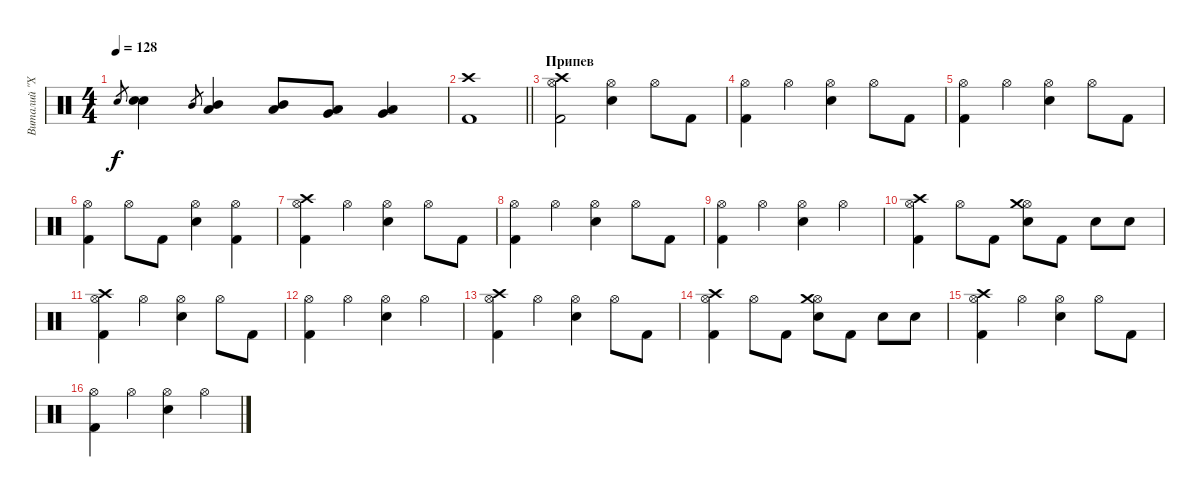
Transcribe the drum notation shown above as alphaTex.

\track ("Виталий \"Хамер\" Лядов" "Виталий \"Х") {instrument percussion}
\staff {score}
\articulation defaults
\ts (4 4)
\tempo 128
\clef neutral
\ks c "Electric Snare (hit)".8{gr dy f}
("Electric Snare (hit)" "Electric Snare (hit)").4 "Mid Tom (hit)".8{gr} ("Mid Tom (hit)" "Low Tom (hit)").4 ("Low Tom (hit)" "Mid Tom (hit)").8 ("Very Low Tom (hit)" "Low Tom (hit)").8 ("Low Floor Tom (hit)" "Very Low Tom (hit)").4 |
\barLineRight lightlight
("Kick (hit) 2" "Crash high (hit)").1 |
\section ("" "Припев")
("Kick (hit) 2" "Hi-Hat (open)" "Crash high (hit)").2 ("Electric Snare (hit)" "Hi-Hat (open)").4 "Hi-Hat (open)".8 "Kick (hit) 2".8 |
("Kick (hit) 2" "Hi-Hat (open)").4 "Hi-Hat (open)".4 ("Electric Snare (hit)" "Hi-Hat (open)").4 "Hi-Hat (open)".8 "Kick (hit) 2".8 |
("Kick (hit) 2" "Hi-Hat (open)").4 "Hi-Hat (open)".4 ("Electric Snare (hit)" "Hi-Hat (open)").4 "Hi-Hat (open)".8 "Kick (hit) 2".8 |
("Kick (hit) 2" "Hi-Hat (open)").4 "Hi-Hat (open)".8 "Kick (hit) 2".8 ("Electric Snare (hit)" "Hi-Hat (open)").4 ("Kick (hit) 2" "Hi-Hat (open)").4 |
("Kick (hit) 2" "Hi-Hat (open)" "Crash high (hit)").4 "Hi-Hat (open)".4 ("Electric Snare (hit)" "Hi-Hat (open)").4 "Hi-Hat (open)".8 "Kick (hit) 2".8 |
("Kick (hit) 2" "Hi-Hat (open)").4 "Hi-Hat (open)".4 ("Electric Snare (hit)" "Hi-Hat (open)").4 "Hi-Hat (open)".8 "Kick (hit) 2".8 |
("Kick (hit) 2" "Hi-Hat (open)").4 "Hi-Hat (open)".4 ("Electric Snare (hit)" "Hi-Hat (open)").4 "Hi-Hat (open)".4 |
("Kick (hit) 2" "Hi-Hat (open)" "Crash high (hit)").4 "Hi-Hat (open)".8 "Kick (hit) 2".8 ("Electric Snare (hit)" "Hi-Hat (open)" "Crash medium (hit)").8 "Kick (hit) 2".8 "Electric Snare (hit)".8 "Electric Snare (hit)".8 |
("Kick (hit) 2" "Hi-Hat (open)" "Crash high (hit)").4 "Hi-Hat (open)".4 ("Electric Snare (hit)" "Hi-Hat (open)").4 "Hi-Hat (open)".8 "Kick (hit) 2".8 |
("Kick (hit) 2" "Hi-Hat (open)").4 "Hi-Hat (open)".4 ("Electric Snare (hit)" "Hi-Hat (open)").4 "Hi-Hat (open)".4 |
("Kick (hit) 2" "Hi-Hat (open)" "Crash high (hit)").4 "Hi-Hat (open)".4 ("Electric Snare (hit)" "Hi-Hat (open)").4 "Hi-Hat (open)".8 "Kick (hit) 2".8 |
("Kick (hit) 2" "Hi-Hat (open)" "Crash high (hit)").4 "Hi-Hat (open)".8 "Kick (hit) 2".8 ("Electric Snare (hit)" "Hi-Hat (open)" "Crash medium (hit)").8 "Kick (hit) 2".8 "Electric Snare (hit)".8 "Electric Snare (hit)".8 |
("Kick (hit) 2" "Hi-Hat (open)" "Crash high (hit)").4 "Hi-Hat (open)".4 ("Electric Snare (hit)" "Hi-Hat (open)").4 "Hi-Hat (open)".8 "Kick (hit) 2".8 |
("Kick (hit) 2" "Hi-Hat (open)").4 "Hi-Hat (open)".4 ("Electric Snare (hit)" "Hi-Hat (open)").4 "Hi-Hat (open)".4
